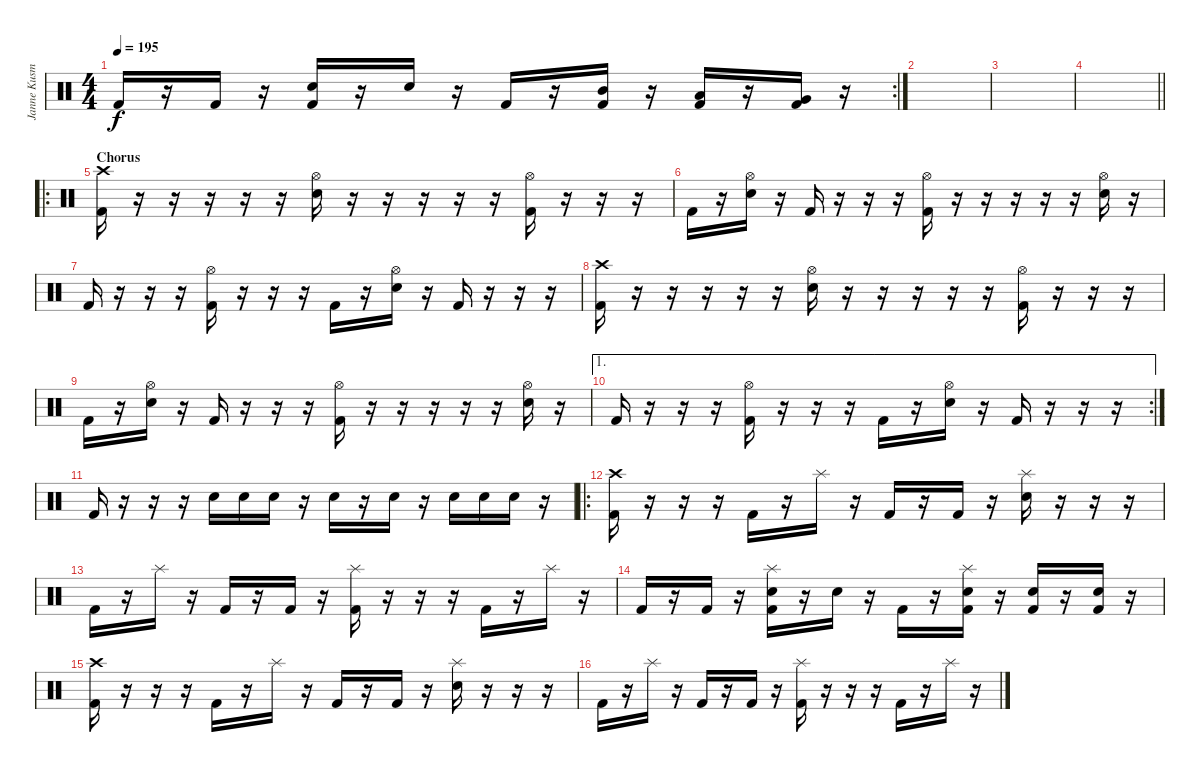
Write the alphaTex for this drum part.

\track ("Janne Kusmin" "Janne Kusm") {instrument percussion}
\staff {score}
\articulation defaults
\rc 2
\ts (4 4)
\tempo 195
\clef neutral
\ks c "Kick (hit) 2".16{dy f}
r.16 "Kick (hit) 2".16 r.16 ("Snare (hit) 2" "Kick (hit) 2").16 r.16 "Snare (hit) 2".16 r.16 "Kick (hit) 2".16 r.16 ("Mid Tom (hit)" "Kick (hit) 2").16 r.16 ("Low Tom (hit)" "Kick (hit) 2").16 r.16 ("Very Low Tom (hit)" "Kick (hit) 2").16 r.16 |
|
|
\barLineRight lightlight
|
\ro
\section ("" "Chorus")
("Crash high (hit)" "Kick (hit) 2").16 r.16 r.16 r.16 r.16 r.16 ("Hi-Hat (open)" "Snare (hit) 2").16 r.16 r.16 r.16 r.16 r.16 ("Hi-Hat (open)" "Kick (hit) 2").16 r.16 r.16 r.16 |
"Kick (hit) 2".16 r.16 ("Hi-Hat (open)" "Snare (hit) 2").16 r.16 "Kick (hit) 2".16 r.16 r.16 r.16 ("Hi-Hat (open)" "Kick (hit) 2").16 r.16 r.16 r.16 r.16 r.16 ("Hi-Hat (open)" "Snare (hit) 2").16 r.16 |
"Kick (hit) 2".16 r.16 r.16 r.16 ("Hi-Hat (open)" "Kick (hit) 2").16 r.16 r.16 r.16 "Kick (hit) 2".16 r.16 ("Hi-Hat (open)" "Snare (hit) 2").16 r.16 "Kick (hit) 2".16 r.16 r.16 r.16 |
("Crash high (hit)" "Kick (hit) 2").16 r.16 r.16 r.16 r.16 r.16 ("Hi-Hat (open)" "Snare (hit) 2").16 r.16 r.16 r.16 r.16 r.16 ("Hi-Hat (open)" "Kick (hit) 2").16 r.16 r.16 r.16 |
"Kick (hit) 2".16 r.16 ("Hi-Hat (open)" "Snare (hit) 2").16 r.16 "Kick (hit) 2".16 r.16 r.16 r.16 ("Hi-Hat (open)" "Kick (hit) 2").16 r.16 r.16 r.16 r.16 r.16 ("Hi-Hat (open)" "Snare (hit) 2").16 r.16 |
\ae 1
\rc 2 "Kick (hit) 2".16
r.16 r.16 r.16 ("Hi-Hat (open)" "Kick (hit) 2").16 r.16 r.16 r.16 "Kick (hit) 2".16 r.16 ("Hi-Hat (open)" "Snare (hit) 2").16 r.16 "Kick (hit) 2".16 r.16 r.16 r.16 |
"Kick (hit) 2".16 r.16 r.16 r.16 "Snare (hit) 2".16 "Snare (hit) 2".16 "Snare (hit) 2".16 r.16 "Snare (hit) 2".16 r.16 "Snare (hit) 2".16 r.16 "Snare (hit) 2".16 "Snare (hit) 2".16 "Snare (hit) 2".16 r.16 |
\ro
("Crash high (hit)" "Kick (hit) 2").16 r.16 r.16 r.16 "Kick (hit) 2".16 r.16 "Splash (hit)".16 r.16 "Kick (hit) 2".16 r.16 "Kick (hit) 2".16 r.16 ("Splash (hit)" "Snare (hit) 2").16 r.16 r.16 r.16 |
"Kick (hit) 2".16 r.16 "Splash (hit)".16 r.16 "Kick (hit) 2".16 r.16 "Kick (hit) 2".16 r.16 ("Splash (hit)" "Kick (hit) 2").16 r.16 r.16 r.16 "Kick (hit) 2".16 r.16 "Splash (hit)".16 r.16 |
"Kick (hit) 2".16 r.16 "Kick (hit) 2".16 r.16 ("Splash (hit)" "Snare (hit) 2" "Kick (hit) 2").16 r.16 "Snare (hit) 2".16 r.16 "Kick (hit) 2".16 r.16 ("Splash (hit)" "Snare (hit) 2" "Kick (hit) 2").16 r.16 ("Snare (hit) 2" "Kick (hit) 2").16 r.16 ("Snare (hit) 2" "Kick (hit) 2").16 r.16 |
("Crash high (hit)" "Kick (hit) 2").16 r.16 r.16 r.16 "Kick (hit) 2".16 r.16 "Splash (hit)".16 r.16 "Kick (hit) 2".16 r.16 "Kick (hit) 2".16 r.16 ("Splash (hit)" "Snare (hit) 2").16 r.16 r.16 r.16 |
"Kick (hit) 2".16 r.16 "Splash (hit)".16 r.16 "Kick (hit) 2".16 r.16 "Kick (hit) 2".16 r.16 ("Splash (hit)" "Kick (hit) 2").16 r.16 r.16 r.16 "Kick (hit) 2".16 r.16 "Splash (hit)".16 r.16
